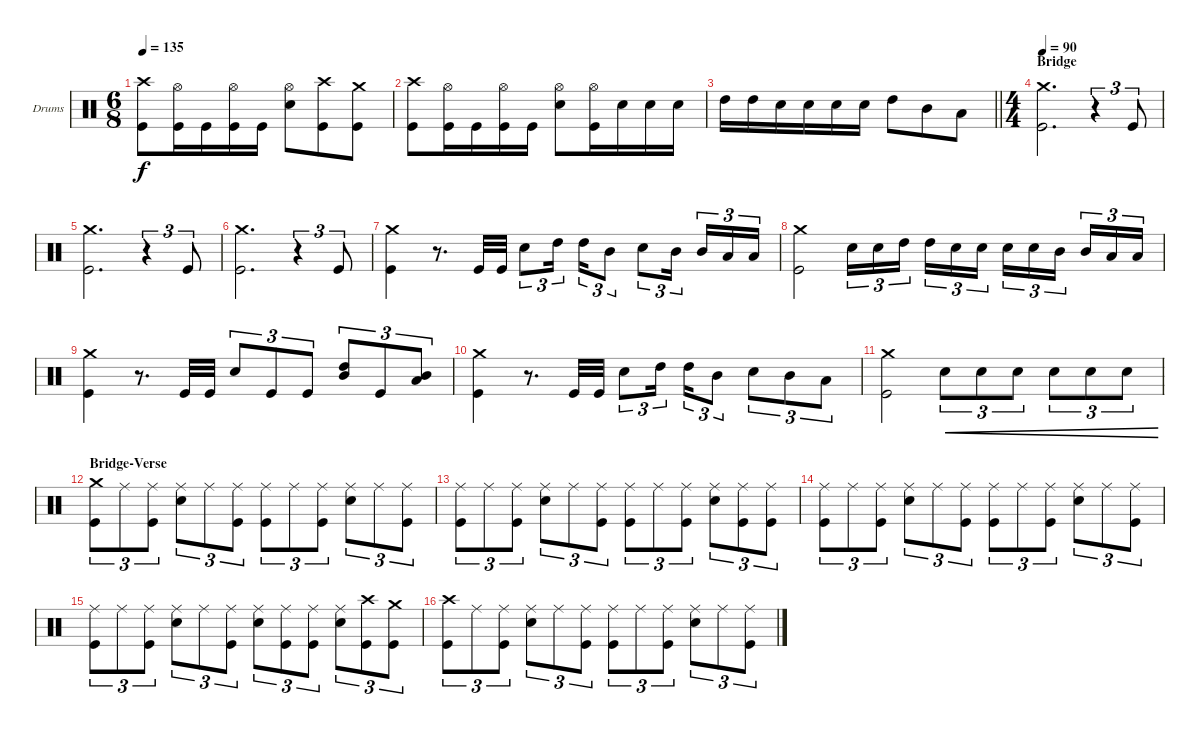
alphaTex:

\bracketExtendMode groupsimilarinstruments
\firstSystemTrackNameOrientation horizontal
\otherSystemsTrackNameOrientation horizontal
\track ("drums (Anton Zulganov)" "Drums") {instrument percussion}
\staff {score}
\articulation defaults
\ts (6 8)
\tempo 135
\clef neutral
\ks aminor
("Kick (hit)" "Crash high (hit)").8{dy f} ("Kick (hit)" "Hi-Hat (open)").16 "Kick (hit)".16 ("Kick (hit)" "Hi-Hat (open)").16 "Kick (hit)".16 ("Snare (hit) 2" "Hi-Hat (open)").8 ("Kick (hit)" "Crash high (hit)").8 ("Kick (hit)" "Crash medium (hit)").8 |
("Kick (hit)" "Crash high (hit)").8 ("Kick (hit)" "Hi-Hat (open)").16 "Kick (hit)".16 ("Kick (hit)" "Hi-Hat (open)").16 "Kick (hit)".16 ("Snare (hit) 2" "Hi-Hat (open)").8 ("Kick (hit)" "Hi-Hat (open)").16 "Snare (hit) 2".16 "Snare (hit) 2".16 "Snare (hit) 2".16 |
\barLineRight lightlight "High Tom (hit)".16 "High Tom (hit)".16 "Snare (hit) 2".16 "Snare (hit) 2".16 "Snare (hit) 2".16 "Snare (hit) 2".16 "High Tom (hit)".8 "Mid Tom (hit)".8 "Low Tom (hit)".8
|
\ts (4 4)
\beaming (8 2 2 2 2)
\section ("" "Bridge")
\tempo 90
("Kick (hit)" "Crash medium (hit)").2{d} r.4{tu (3 2)} "Kick (hit)".8{tu (3 2)} |
("Kick (hit)" "Crash medium (hit)").2{d} r.4{tu (3 2)} "Kick (hit)".8{tu (3 2)} |
("Kick (hit)" "Crash medium (hit)").2{d} r.4{tu (3 2)} "Kick (hit)".8{tu (3 2)} |
("Kick (hit)" "Crash medium (hit)").4 r.8{d} "Kick (hit)".32 "Kick (hit)".32 "Snare (hit) 2".8{tu (3 2)} "High Tom (hit)".16{tu (3 2)} "High Tom (hit)".16{tu (3 2)} "Mid Tom (hit)".8{tu (3 2)} "Snare (hit) 2".8{tu (3 2)} "Mid Tom (hit)".16{tu (3 2)} "Mid Tom (hit)".16{tu (3 2)} "Low Tom (hit)".16{tu (3 2)} "Low Tom (hit)".16{tu (3 2)} |
("Kick (hit)" "Crash medium (hit)").2 "Snare (hit) 2".16{tu (3 2)} "Snare (hit) 2".16{tu (3 2)} "High Tom (hit)".16{tu (3 2)} "High Tom (hit)".16{tu (3 2)} "Snare (hit) 2".16{tu (3 2)} "Snare (hit) 2".16{tu (3 2)} "Snare (hit) 2".16{tu (3 2)} "Snare (hit) 2".16{tu (3 2)} "Mid Tom (hit)".16{tu (3 2)} "Mid Tom (hit)".16{tu (3 2)} "Low Tom (hit)".16{tu (3 2)} "Low Tom (hit)".16{tu (3 2)} |
("Kick (hit)" "Crash medium (hit)").4 r.8{d} "Kick (hit)".32 "Kick (hit)".32 "Snare (hit) 2".8{tu (3 2)} "Kick (hit)".8{tu (3 2)} "Kick (hit)".8{tu (3 2)} ("High Tom (hit)" "Mid Tom (hit)").8{tu (3 2)} "Kick (hit)".8{tu (3 2)} ("Mid Tom (hit)" "Low Tom (hit)").8{tu (3 2)} |
("Kick (hit)" "Crash medium (hit)").4 r.8{d} "Kick (hit)".32 "Kick (hit)".32 "Snare (hit) 2".8{tu (3 2)} "High Tom (hit)".16{tu (3 2)} "High Tom (hit)".16{tu (3 2)} "Mid Tom (hit)".8{tu (3 2)} "Snare (hit) 2".8{tu (3 2)} "Mid Tom (hit)".8{tu (3 2)} "Low Tom (hit)".8{tu (3 2)} |
("Kick (hit)" "Crash medium (hit)").2 "Snare (hit) 2".8{tu (3 2) cre} "Snare (hit) 2".8{tu (3 2) cre} "Snare (hit) 2".8{tu (3 2) cre} "Snare (hit) 2".8{tu (3 2) cre} "Snare (hit) 2".8{tu (3 2) cre} "Snare (hit) 2".8{tu (3 2) cre} |
\section ("" "Bridge-Verse")
("Kick (hit)" "Crash medium (hit)").8{tu (3 2)} "Ride (middle)".8{tu (3 2)} ("Kick (hit)" "Ride (middle)").8{tu (3 2)} ("Snare (hit) 2" "Ride (middle)").8{tu (3 2)} "Ride (middle)".8{tu (3 2)} ("Kick (hit)" "Ride (middle)").8{tu (3 2)} ("Kick (hit)" "Ride (middle)").8{tu (3 2)} "Ride (middle)".8{tu (3 2)} ("Kick (hit)" "Ride (middle)").8{tu (3 2)} ("Snare (hit) 2" "Ride (middle)").8{tu (3 2)} "Ride (middle)".8{tu (3 2)} ("Kick (hit)" "Ride (middle)").8{tu (3 2)} |
("Kick (hit)" "Ride (middle)").8{tu (3 2)} "Ride (middle)".8{tu (3 2)} ("Kick (hit)" "Ride (middle)").8{tu (3 2)} ("Snare (hit) 2" "Ride (middle)").8{tu (3 2)} "Ride (middle)".8{tu (3 2)} ("Kick (hit)" "Ride (middle)").8{tu (3 2)} ("Kick (hit)" "Ride (middle)").8{tu (3 2)} "Ride (middle)".8{tu (3 2)} ("Kick (hit)" "Ride (middle)").8{tu (3 2)} ("Snare (hit) 2" "Ride (middle)").8{tu (3 2)} ("Kick (hit)" "Ride (middle)").8{tu (3 2)} ("Kick (hit)" "Ride (middle)").8{tu (3 2)} |
("Kick (hit)" "Ride (middle)").8{tu (3 2)} "Ride (middle)".8{tu (3 2)} ("Kick (hit)" "Ride (middle)").8{tu (3 2)} ("Snare (hit) 2" "Ride (middle)").8{tu (3 2)} "Ride (middle)".8{tu (3 2)} ("Kick (hit)" "Ride (middle)").8{tu (3 2)} ("Kick (hit)" "Ride (middle)").8{tu (3 2)} "Ride (middle)".8{tu (3 2)} ("Kick (hit)" "Ride (middle)").8{tu (3 2)} ("Snare (hit) 2" "Ride (middle)").8{tu (3 2)} "Ride (middle)".8{tu (3 2)} ("Kick (hit)" "Ride (middle)").8{tu (3 2)} |
("Kick (hit)" "Ride (middle)").8{tu (3 2)} "Ride (middle)".8{tu (3 2)} ("Kick (hit)" "Ride (middle)").8{tu (3 2)} ("Snare (hit) 2" "Ride (middle)").8{tu (3 2)} "Ride (middle)".8{tu (3 2)} ("Kick (hit)" "Ride (middle)").8{tu (3 2)} ("Snare (hit) 2" "Ride (middle)").8{tu (3 2)} ("Kick (hit)" "Ride (middle)").8{tu (3 2)} ("Kick (hit)" "Ride (middle)").8{tu (3 2)} ("Snare (hit) 2" "Ride (middle)").8{tu (3 2)} ("Kick (hit)" "Crash high (hit)").8{tu (3 2)} ("Kick (hit)" "Crash medium (hit)").8{tu (3 2)} |
("Kick (hit)" "Crash high (hit)").8{tu (3 2)} "Ride (middle)".8{tu (3 2)} ("Kick (hit)" "Ride (middle)").8{tu (3 2)} ("Snare (hit) 2" "Ride (middle)").8{tu (3 2)} "Ride (middle)".8{tu (3 2)} ("Kick (hit)" "Ride (middle)").8{tu (3 2)} ("Kick (hit)" "Ride (middle)").8{tu (3 2)} "Ride (middle)".8{tu (3 2)} ("Kick (hit)" "Ride (middle)").8{tu (3 2)} ("Snare (hit) 2" "Ride (middle)").8{tu (3 2)} "Ride (middle)".8{tu (3 2)} ("Kick (hit)" "Ride (middle)").8{tu (3 2)}
